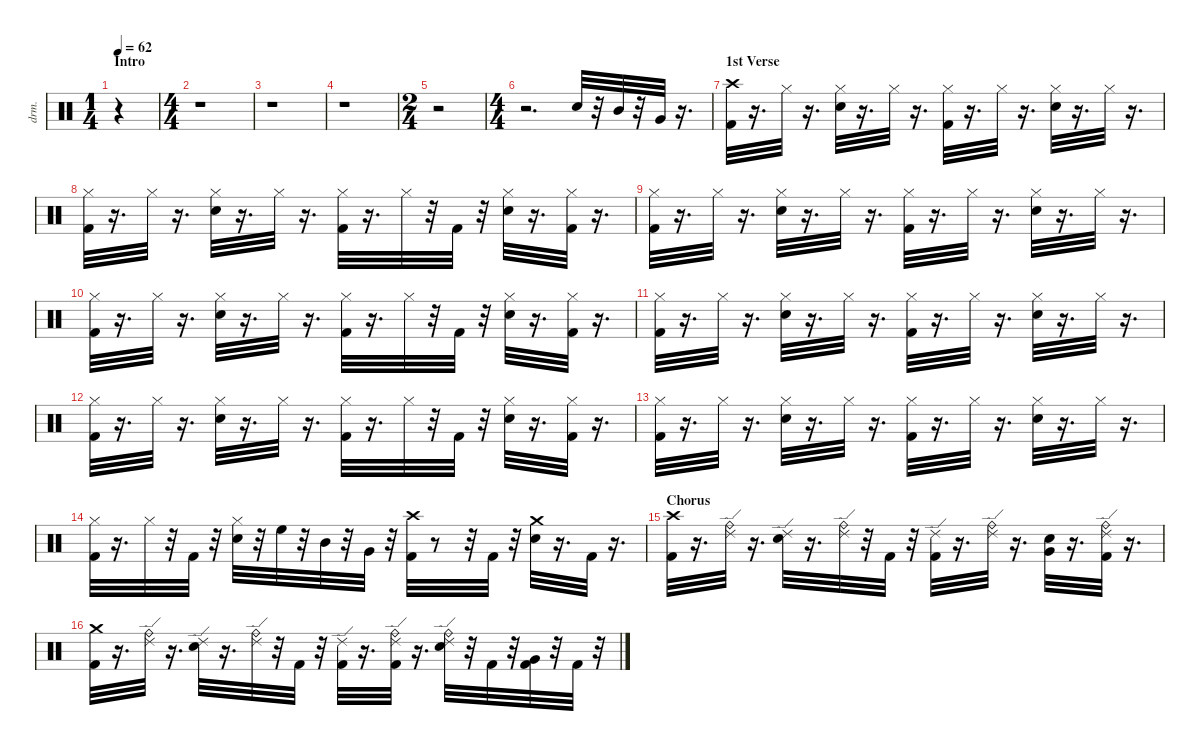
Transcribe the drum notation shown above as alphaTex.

\defaultSystemsLayout 4
\hideDynamics
\bracketExtendMode nobrackets
\otherSystemsTrackNameOrientation horizontal
\track ("Drums" "drm.") {instrument percussion}
\staff {score}
\articulation defaults
\ts (1 4)
\section ("" "Intro")
\tempo 62
\clef neutral
\ks c
r.4{dy mf} |
\ts (4 4)
r.1 |
r.1 |
r.1 |
\ts (2 4)
r.2 |
\ts (4 4)
r.2{d} "Snare (hit) 2".32 r.32 "Mid Tom (hit)".32 r.32 "Very Low Tom (hit)".32 r.16{d} |
\section ("" "1st Verse")
("Crash high (hit)" "Kick (hit) 2").32 r.16{d} "Hi-Hat (closed)".32 r.16{d} ("Snare (hit) 2" "Hi-Hat (closed)").32 r.16{d} "Hi-Hat (closed)".32 r.16{d} ("Hi-Hat (closed)" "Kick (hit) 2").32 r.16{d} "Hi-Hat (closed)".32 r.16{d} ("Hi-Hat (closed)" "Snare (hit) 2").32 r.16{d} "Hi-Hat (closed)".32 r.16{d} |
("Kick (hit) 2" "Hi-Hat (closed)").32 r.16{d} "Hi-Hat (closed)".32 r.16{d} ("Hi-Hat (closed)" "Snare (hit) 2").32 r.16{d} "Hi-Hat (closed)".32 r.16{d} ("Kick (hit) 2" "Hi-Hat (closed)").32 r.16{d} "Hi-Hat (closed)".32 r.32 "Kick (hit) 2".32 r.32 ("Hi-Hat (closed)" "Snare (hit) 2").32 r.16{d} ("Kick (hit) 2" "Hi-Hat (closed)").32 r.16{d} |
("Kick (hit) 2" "Hi-Hat (closed)").32 r.16{d} "Hi-Hat (closed)".32 r.16{d} ("Snare (hit) 2" "Hi-Hat (closed)").32 r.16{d} "Hi-Hat (closed)".32 r.16{d} ("Kick (hit) 2" "Hi-Hat (closed)").32 r.16{d} "Hi-Hat (closed)".32 r.16{d} ("Snare (hit) 2" "Hi-Hat (closed)").32 r.16{d} "Hi-Hat (closed)".32 r.16{d} |
("Kick (hit) 2" "Hi-Hat (closed)").32 r.16{d} "Hi-Hat (closed)".32 r.16{d} ("Snare (hit) 2" "Hi-Hat (closed)").32 r.16{d} "Hi-Hat (closed)".32 r.16{d} ("Kick (hit) 2" "Hi-Hat (closed)").32 r.16{d} "Hi-Hat (closed)".32 r.32 "Kick (hit) 2".32 r.32 ("Hi-Hat (closed)" "Snare (hit) 2").32 r.16{d} ("Kick (hit) 2" "Hi-Hat (closed)").32 r.16{d} |
("Kick (hit) 2" "Hi-Hat (closed)").32 r.16{d} "Hi-Hat (closed)".32 r.16{d} ("Hi-Hat (closed)" "Snare (hit) 2").32 r.16{d} "Hi-Hat (closed)".32 r.16{d} ("Hi-Hat (closed)" "Kick (hit) 2").32 r.16{d} "Hi-Hat (closed)".32 r.16{d} ("Snare (hit) 2" "Hi-Hat (closed)").32 r.16{d} "Hi-Hat (closed)".32 r.16{d} |
("Hi-Hat (closed)" "Kick (hit) 2").32 r.16{d} "Hi-Hat (closed)".32 r.16{d} ("Hi-Hat (closed)" "Snare (hit) 2").32 r.16{d} "Hi-Hat (closed)".32 r.16{d} ("Kick (hit) 2" "Hi-Hat (closed)").32 r.16{d} "Hi-Hat (closed)".32 r.32 "Kick (hit) 2".32 r.32 ("Snare (hit) 2" "Hi-Hat (closed)").32 r.16{d} ("Kick (hit) 2" "Hi-Hat (closed)").32 r.16{d} |
("Hi-Hat (closed)" "Kick (hit) 2").32 r.16{d} "Hi-Hat (closed)".32 r.16{d} ("Hi-Hat (closed)" "Snare (hit) 2").32 r.16{d} "Hi-Hat (closed)".32 r.16{d} ("Kick (hit) 2" "Hi-Hat (closed)").32 r.16{d} "Hi-Hat (closed)".32 r.16{d} ("Snare (hit) 2" "Hi-Hat (closed)").32 r.16{d} "Hi-Hat (closed)".32 r.16{d} |
("Kick (hit) 2" "Hi-Hat (closed)").32 r.16{d} "Hi-Hat (closed)".32 r.32 "Kick (hit) 2".32 r.32 ("Snare (hit) 2" "Hi-Hat (closed)").32 r.32 "High Floor Tom (hit)".32 r.32 "Mid Tom (hit)".32 r.32 "Very Low Tom (hit)".32 r.32 ("Kick (hit) 2" "Crash high (hit)").32 r.8 r.32 "Kick (hit) 2".32 r.32 ("Snare (hit) 2" "Crash medium (hit)").32 r.16{d} "Kick (hit) 2".32 r.16{d} |
\section ("" "Chorus")
("Kick (hit) 2" "Crash high (hit)").32 r.16{d} ("Ride (edge) 2" "Ride (bell)").32 r.16{d} ("Ride (edge) 2" "Snare (hit) 2").32 r.16{d} ("Ride (bell)" "Ride (edge) 2").32 r.32 "Kick (hit) 2".32 r.32 ("Kick (hit) 2" "Ride (edge) 2").32 r.16{d} ("Ride (edge) 2" "Ride (bell)").32 r.16{d} ("Very Low Tom (hit)" "Snare (hit) 2").32 r.16{d} ("Ride (edge) 2" "Ride (bell)" "Kick (hit) 2").32 r.16{d} |
("Crash medium (hit)" "Kick (hit) 2").32 r.16{d} ("Ride (bell)" "Ride (edge) 2").32 r.16{d} ("Snare (hit) 2" "Ride (edge) 2").32 r.16{d} ("Ride (edge) 2" "Ride (bell)").32 r.32 "Kick (hit) 2".32 r.32 ("Ride (edge) 2" "Kick (hit) 2").32 r.16{d} ("Ride (bell)" "Ride (edge) 2" "Kick (hit) 2").32 r.16{d} ("Ride (bell)" "Snare (hit) 2" "Ride (edge) 2").32 r.32 "Kick (hit) 2".32 r.32 ("Very Low Tom (hit)" "Kick (hit) 2").32 r.32 "Kick (hit) 2".32 r.32
